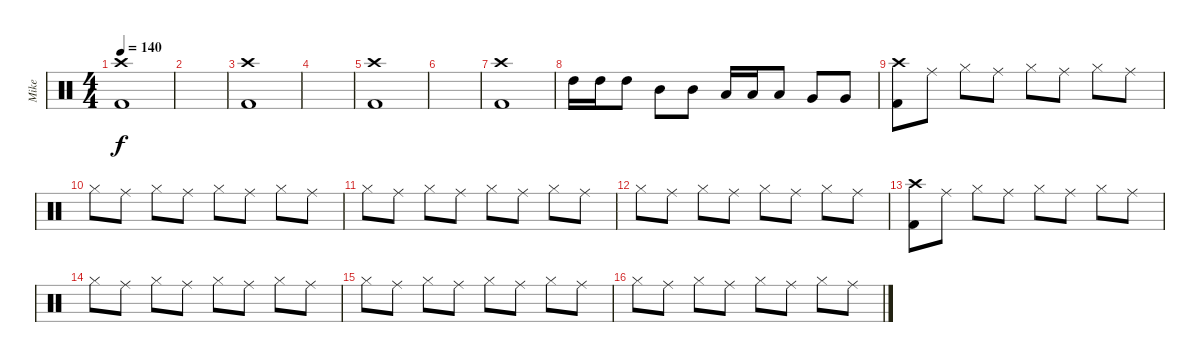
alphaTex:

\track ("Mike" "Mike") {instrument percussion}
\staff {score}
\articulation defaults
\ts (4 4)
\tempo 140
\clef neutral
\ks c
("Kick (hit) 2" "Crash high (hit)").1{dy f} |
|
("Kick (hit) 2" "Crash high (hit)").1 |
|
("Kick (hit) 2" "Crash high (hit)").1 |
|
("Kick (hit) 2" "Crash high (hit)").1 |
"High Tom (hit)".16 "High Tom (hit)".16 "High Tom (hit)".8 "Mid Tom (hit)".8 "Mid Tom (hit)".8 "Low Tom (hit)".16 "Low Tom (hit)".16 "Low Tom (hit)".8 "Very Low Tom (hit)".8 "Very Low Tom (hit)".8 |
("Kick (hit) 2" "Crash high (hit)").8 "Ride (middle)".8 "Hi-Hat (closed)".8 "Ride (middle)".8 "Hi-Hat (closed)".8 "Ride (middle)".8 "Hi-Hat (closed)".8 "Ride (middle)".8 |
"Hi-Hat (closed)".8 "Ride (middle)".8 "Hi-Hat (closed)".8 "Ride (middle)".8 "Hi-Hat (closed)".8 "Ride (middle)".8 "Hi-Hat (closed)".8 "Ride (middle)".8 |
"Hi-Hat (closed)".8 "Ride (middle)".8 "Hi-Hat (closed)".8 "Ride (middle)".8 "Hi-Hat (closed)".8 "Ride (middle)".8 "Hi-Hat (closed)".8 "Ride (middle)".8 |
"Hi-Hat (closed)".8 "Ride (middle)".8 "Hi-Hat (closed)".8 "Ride (middle)".8 "Hi-Hat (closed)".8 "Ride (middle)".8 "Hi-Hat (closed)".8 "Ride (middle)".8 |
("Kick (hit) 2" "Crash high (hit)").8 "Ride (middle)".8 "Hi-Hat (closed)".8 "Ride (middle)".8 "Hi-Hat (closed)".8 "Ride (middle)".8 "Hi-Hat (closed)".8 "Ride (middle)".8 |
"Hi-Hat (closed)".8 "Ride (middle)".8 "Hi-Hat (closed)".8 "Ride (middle)".8 "Hi-Hat (closed)".8 "Ride (middle)".8 "Hi-Hat (closed)".8 "Ride (middle)".8 |
"Hi-Hat (closed)".8 "Ride (middle)".8 "Hi-Hat (closed)".8 "Ride (middle)".8 "Hi-Hat (closed)".8 "Ride (middle)".8 "Hi-Hat (closed)".8 "Ride (middle)".8 |
"Hi-Hat (closed)".8 "Ride (middle)".8 "Hi-Hat (closed)".8 "Ride (middle)".8 "Hi-Hat (closed)".8 "Ride (middle)".8 "Hi-Hat (closed)".8 "Ride (middle)".8
